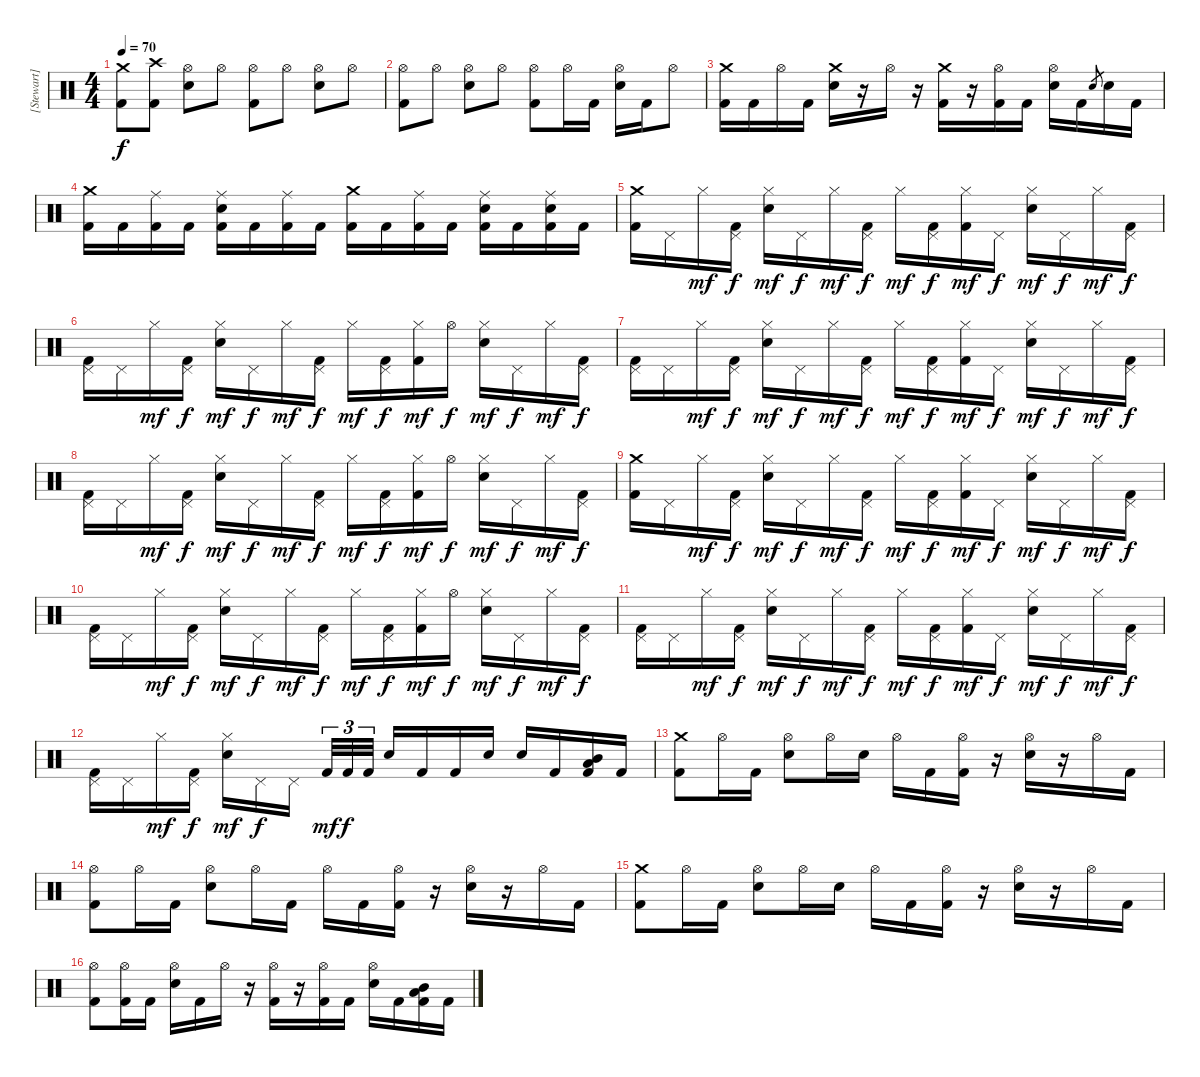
\track ("[Stewart]" "[Stewart]") {instrument percussion}
\staff {score}
\articulation defaults
\ts (4 4)
\tempo 70
\clef neutral
\ks c
("Kick (hit) 2" "Crash medium (hit)").8{dy f} ("Kick (hit) 2" "Crash high (hit)").8 ("Electric Snare (hit)" "Hi-Hat (open)").8 "Hi-Hat (open)".8 ("Kick (hit) 2" "Hi-Hat (open)").8 "Hi-Hat (open)".8 ("Electric Snare (hit)" "Hi-Hat (open)").8 "Hi-Hat (open)".8 |
("Kick (hit) 2" "Hi-Hat (open)").8 "Hi-Hat (open)".8 ("Electric Snare (hit)" "Hi-Hat (open)").8 "Hi-Hat (open)".8 ("Kick (hit) 2" "Hi-Hat (open)").8 "Hi-Hat (open)".16 "Kick (hit) 2".16 ("Electric Snare (hit)" "Hi-Hat (open)").16 "Kick (hit) 2".16 "Hi-Hat (open)".8 |
("Kick (hit) 2" "Crash medium (hit)").16 "Kick (hit) 2".16 "Hi-Hat (open)".16 "Kick (hit) 2".16 ("Electric Snare (hit)" "Crash medium (hit)").16 r.16 "Hi-Hat (open)".16 r.16 ("Kick (hit) 2" "Crash medium (hit)").16 r.16 ("Kick (hit) 2" "Hi-Hat (open)").16 "Kick (hit) 2".16 ("Electric Snare (hit)" "Hi-Hat (open)").16 "Kick (hit) 2".16 "Electric Snare (hit)".8{gr} "Electric Snare (hit)".16 "Kick (hit) 2".16 |
("Kick (hit) 2" "Crash medium (hit)").16 "Kick (hit) 2".16 ("Kick (hit) 2" "Ride (middle)").16 "Kick (hit) 2".16 ("Kick (hit) 2" "Electric Snare (hit)" "Ride (middle)").16 "Kick (hit) 2".16 ("Kick (hit) 2" "Ride (middle)").16 "Kick (hit) 2".16 ("Kick (hit) 2" "Crash medium (hit)").16 "Kick (hit) 2".16 ("Kick (hit) 2" "Ride (middle)").16 "Kick (hit) 2".16 ("Kick (hit) 2" "Electric Snare (hit)" "Ride (middle)").16 "Kick (hit) 2".16 ("Kick (hit) 2" "Electric Snare (hit)" "Ride (middle)").16 "Kick (hit) 2".16 |
("Kick (hit) 2" "Crash medium (hit)").16 "Pedal Hi-Hat (hit)".16 "Hi-Hat (closed)".16{dy mf} ("Kick (hit) 2" "Pedal Hi-Hat (hit)").16{dy f} ("Electric Snare (hit)" "Hi-Hat (closed)").16{dy mf} "Pedal Hi-Hat (hit)".16{dy f} "Hi-Hat (closed)".16{dy mf} ("Kick (hit) 2" "Pedal Hi-Hat (hit)").16{dy f} "Hi-Hat (closed)".16{dy mf} ("Kick (hit) 2" "Pedal Hi-Hat (hit)").16{dy f} ("Kick (hit) 2" "Hi-Hat (closed)").16{dy mf} "Pedal Hi-Hat (hit)".16{dy f} ("Electric Snare (hit)" "Hi-Hat (closed)").16{dy mf} "Pedal Hi-Hat (hit)".16{dy f} "Hi-Hat (closed)".16{dy mf} ("Kick (hit) 2" "Pedal Hi-Hat (hit)").16{dy f} |
("Kick (hit) 2" "Pedal Hi-Hat (hit)").16 "Pedal Hi-Hat (hit)".16 "Hi-Hat (closed)".16{dy mf} ("Kick (hit) 2" "Pedal Hi-Hat (hit)").16{dy f} ("Electric Snare (hit)" "Hi-Hat (closed)").16{dy mf} "Pedal Hi-Hat (hit)".16{dy f} "Hi-Hat (closed)".16{dy mf} ("Kick (hit) 2" "Pedal Hi-Hat (hit)").16{dy f} "Hi-Hat (closed)".16{dy mf} ("Kick (hit) 2" "Pedal Hi-Hat (hit)").16{dy f} ("Kick (hit) 2" "Hi-Hat (closed)").16{dy mf} "Hi-Hat (open)".16{dy f} ("Electric Snare (hit)" "Hi-Hat (closed)").16{dy mf} "Pedal Hi-Hat (hit)".16{dy f} "Hi-Hat (closed)".16{dy mf} ("Kick (hit) 2" "Pedal Hi-Hat (hit)").16{dy f} |
("Kick (hit) 2" "Pedal Hi-Hat (hit)").16 "Pedal Hi-Hat (hit)".16 "Hi-Hat (closed)".16{dy mf} ("Kick (hit) 2" "Pedal Hi-Hat (hit)").16{dy f} ("Electric Snare (hit)" "Hi-Hat (closed)").16{dy mf} "Pedal Hi-Hat (hit)".16{dy f} "Hi-Hat (closed)".16{dy mf} ("Kick (hit) 2" "Pedal Hi-Hat (hit)").16{dy f} "Hi-Hat (closed)".16{dy mf} ("Kick (hit) 2" "Pedal Hi-Hat (hit)").16{dy f} ("Kick (hit) 2" "Hi-Hat (closed)").16{dy mf} "Pedal Hi-Hat (hit)".16{dy f} ("Electric Snare (hit)" "Hi-Hat (closed)").16{dy mf} "Pedal Hi-Hat (hit)".16{dy f} "Hi-Hat (closed)".16{dy mf} ("Kick (hit) 2" "Pedal Hi-Hat (hit)").16{dy f} |
("Kick (hit) 2" "Pedal Hi-Hat (hit)").16 "Pedal Hi-Hat (hit)".16 "Hi-Hat (closed)".16{dy mf} ("Kick (hit) 2" "Pedal Hi-Hat (hit)").16{dy f} ("Electric Snare (hit)" "Hi-Hat (closed)").16{dy mf} "Pedal Hi-Hat (hit)".16{dy f} "Hi-Hat (closed)".16{dy mf} ("Kick (hit) 2" "Pedal Hi-Hat (hit)").16{dy f} "Hi-Hat (closed)".16{dy mf} ("Kick (hit) 2" "Pedal Hi-Hat (hit)").16{dy f} ("Kick (hit) 2" "Hi-Hat (closed)").16{dy mf} "Hi-Hat (open)".16{dy f} ("Electric Snare (hit)" "Hi-Hat (closed)").16{dy mf} "Pedal Hi-Hat (hit)".16{dy f} "Hi-Hat (closed)".16{dy mf} ("Kick (hit) 2" "Pedal Hi-Hat (hit)").16{dy f} |
("Kick (hit) 2" "Crash medium (hit)").16 "Pedal Hi-Hat (hit)".16 "Hi-Hat (closed)".16{dy mf} ("Kick (hit) 2" "Pedal Hi-Hat (hit)").16{dy f} ("Electric Snare (hit)" "Hi-Hat (closed)").16{dy mf} "Pedal Hi-Hat (hit)".16{dy f} "Hi-Hat (closed)".16{dy mf} ("Kick (hit) 2" "Pedal Hi-Hat (hit)").16{dy f} "Hi-Hat (closed)".16{dy mf} ("Kick (hit) 2" "Pedal Hi-Hat (hit)").16{dy f} ("Kick (hit) 2" "Hi-Hat (closed)").16{dy mf} "Pedal Hi-Hat (hit)".16{dy f} ("Electric Snare (hit)" "Hi-Hat (closed)").16{dy mf} "Pedal Hi-Hat (hit)".16{dy f} "Hi-Hat (closed)".16{dy mf} ("Kick (hit) 2" "Pedal Hi-Hat (hit)").16{dy f} |
("Kick (hit) 2" "Pedal Hi-Hat (hit)").16 "Pedal Hi-Hat (hit)".16 "Hi-Hat (closed)".16{dy mf} ("Kick (hit) 2" "Pedal Hi-Hat (hit)").16{dy f} ("Electric Snare (hit)" "Hi-Hat (closed)").16{dy mf} "Pedal Hi-Hat (hit)".16{dy f} "Hi-Hat (closed)".16{dy mf} ("Kick (hit) 2" "Pedal Hi-Hat (hit)").16{dy f} "Hi-Hat (closed)".16{dy mf} ("Kick (hit) 2" "Pedal Hi-Hat (hit)").16{dy f} ("Kick (hit) 2" "Hi-Hat (closed)").16{dy mf} "Hi-Hat (open)".16{dy f} ("Electric Snare (hit)" "Hi-Hat (closed)").16{dy mf} "Pedal Hi-Hat (hit)".16{dy f} "Hi-Hat (closed)".16{dy mf} ("Kick (hit) 2" "Pedal Hi-Hat (hit)").16{dy f} |
("Kick (hit) 2" "Pedal Hi-Hat (hit)").16 "Pedal Hi-Hat (hit)".16 "Hi-Hat (closed)".16{dy mf} ("Kick (hit) 2" "Pedal Hi-Hat (hit)").16{dy f} ("Electric Snare (hit)" "Hi-Hat (closed)").16{dy mf} "Pedal Hi-Hat (hit)".16{dy f} "Hi-Hat (closed)".16{dy mf} ("Kick (hit) 2" "Pedal Hi-Hat (hit)").16{dy f} "Hi-Hat (closed)".16{dy mf} ("Kick (hit) 2" "Pedal Hi-Hat (hit)").16{dy f} ("Kick (hit) 2" "Hi-Hat (closed)").16{dy mf} "Pedal Hi-Hat (hit)".16{dy f} ("Electric Snare (hit)" "Hi-Hat (closed)").16{dy mf} "Pedal Hi-Hat (hit)".16{dy f} "Hi-Hat (closed)".16{dy mf} ("Kick (hit) 2" "Pedal Hi-Hat (hit)").16{dy f} |
("Kick (hit) 2" "Pedal Hi-Hat (hit)").16 "Pedal Hi-Hat (hit)".16 "Hi-Hat (closed)".16{dy mf} ("Kick (hit) 2" "Pedal Hi-Hat (hit)").16{dy f} ("Electric Snare (hit)" "Hi-Hat (closed)").16{dy mf} "Pedal Hi-Hat (hit)".16{dy f} "Pedal Hi-Hat (hit)".16 "Kick (hit) 2".32{tu (3 2) dy mf} "Kick (hit) 2".32{tu (3 2) dy f} "Kick (hit) 2".32{tu (3 2)} "Electric Snare (hit)".16 "Kick (hit) 2".16 "Kick (hit) 2".16 "Electric Snare (hit)".16 "Electric Snare (hit)".16 "Kick (hit) 2".16 ("Kick (hit) 2" "Mid Tom (hit)" "Low Tom (hit)").16 "Kick (hit) 2".16 |
("Kick (hit) 2" "Crash medium (hit)").8 "Hi-Hat (open)".16 "Kick (hit) 2".16 ("Electric Snare (hit)" "Hi-Hat (open)").8 "Hi-Hat (open)".16 "Electric Snare (hit)".16 "Hi-Hat (open)".16 "Kick (hit) 2".16 ("Kick (hit) 2" "Hi-Hat (open)").16 r.16 ("Electric Snare (hit)" "Hi-Hat (open)").16 r.16 "Hi-Hat (open)".16 "Kick (hit) 2".16 |
("Kick (hit) 2" "Hi-Hat (open)").8 "Hi-Hat (open)".16 "Kick (hit) 2".16 ("Electric Snare (hit)" "Hi-Hat (open)").8 "Hi-Hat (open)".16 "Kick (hit) 2".16 "Hi-Hat (open)".16 "Kick (hit) 2".16 ("Kick (hit) 2" "Hi-Hat (open)").16 r.16 ("Electric Snare (hit)" "Hi-Hat (open)").16 r.16 "Hi-Hat (open)".16 "Kick (hit) 2".16 |
("Kick (hit) 2" "Crash medium (hit)").8 "Hi-Hat (open)".16 "Kick (hit) 2".16 ("Electric Snare (hit)" "Hi-Hat (open)").8 "Hi-Hat (open)".16 "Electric Snare (hit)".16 "Hi-Hat (open)".16 "Kick (hit) 2".16 ("Kick (hit) 2" "Hi-Hat (open)").16 r.16 ("Electric Snare (hit)" "Hi-Hat (open)").16 r.16 "Hi-Hat (open)".16 "Kick (hit) 2".16 |
("Kick (hit) 2" "Hi-Hat (open)").8 ("Kick (hit) 2" "Hi-Hat (open)").16 "Kick (hit) 2".16 ("Electric Snare (hit)" "Hi-Hat (open)").16 "Kick (hit) 2".16 "Hi-Hat (open)".16 r.16 ("Kick (hit) 2" "Hi-Hat (open)").16 r.16 ("Kick (hit) 2" "Hi-Hat (open)").16 "Kick (hit) 2".16 ("Electric Snare (hit)" "Hi-Hat (open)").16 "Kick (hit) 2".16 ("Mid Tom (hit)" "Low Tom (hit)" "Kick (hit) 2").16 "Kick (hit) 2".16
